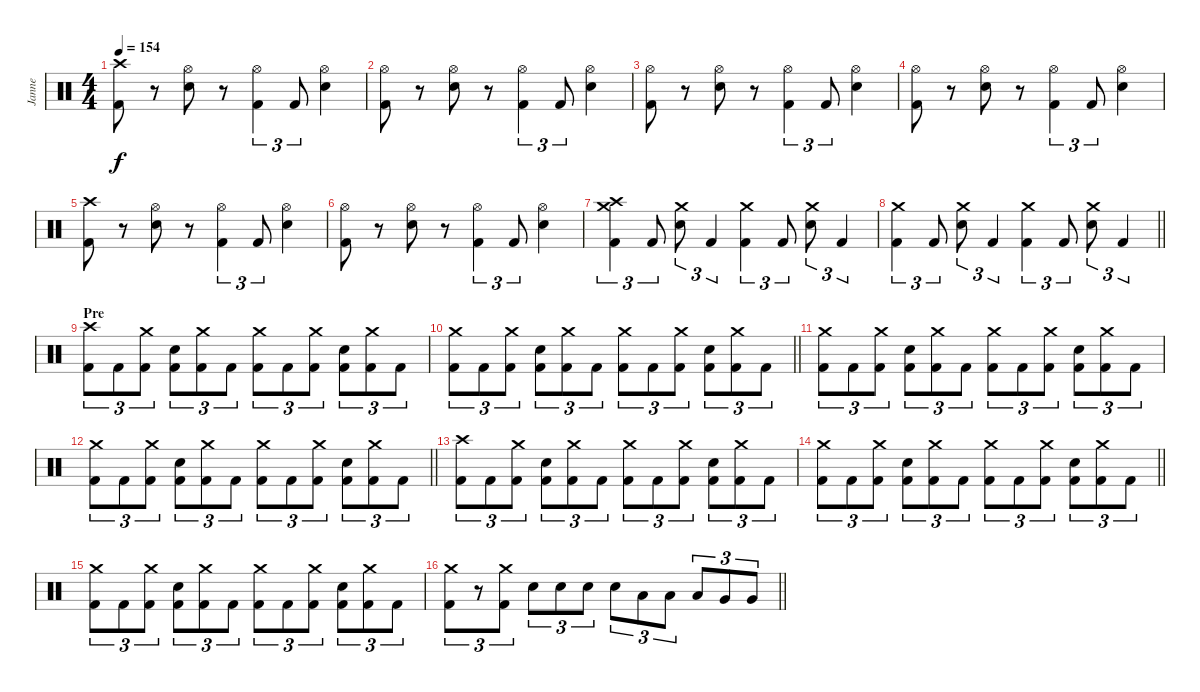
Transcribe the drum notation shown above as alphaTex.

\track ("Janne" "Janne") {instrument percussion}
\staff {score}
\articulation defaults
\ts (4 4)
\tempo 154
\clef neutral
\ks c
("Crash high (hit)" "Kick (hit) 2").8{dy f} r.8 ("Hi-Hat (open)" "Electric Snare (hit)").8 r.8 ("Hi-Hat (open)" "Kick (hit) 2").4{tu (3 2)} "Kick (hit) 2".8{tu (3 2)} ("Hi-Hat (open)" "Electric Snare (hit)").4 |
("Hi-Hat (open)" "Kick (hit) 2").8 r.8 ("Hi-Hat (open)" "Electric Snare (hit)").8 r.8 ("Hi-Hat (open)" "Kick (hit) 2").4{tu (3 2)} "Kick (hit) 2".8{tu (3 2)} ("Hi-Hat (open)" "Electric Snare (hit)").4 |
("Hi-Hat (open)" "Kick (hit) 2").8 r.8 ("Hi-Hat (open)" "Electric Snare (hit)").8 r.8 ("Hi-Hat (open)" "Kick (hit) 2").4{tu (3 2)} "Kick (hit) 2".8{tu (3 2)} ("Hi-Hat (open)" "Electric Snare (hit)").4 |
("Hi-Hat (open)" "Kick (hit) 2").8 r.8 ("Hi-Hat (open)" "Electric Snare (hit)").8 r.8 ("Hi-Hat (open)" "Kick (hit) 2").4{tu (3 2)} "Kick (hit) 2".8{tu (3 2)} ("Hi-Hat (open)" "Electric Snare (hit)").4 |
("Crash high (hit)" "Kick (hit) 2").8 r.8 ("Hi-Hat (open)" "Electric Snare (hit)").8 r.8 ("Hi-Hat (open)" "Kick (hit) 2").4{tu (3 2)} "Kick (hit) 2".8{tu (3 2)} ("Hi-Hat (open)" "Electric Snare (hit)").4 |
("Hi-Hat (open)" "Kick (hit) 2").8 r.8 ("Hi-Hat (open)" "Electric Snare (hit)").8 r.8 ("Hi-Hat (open)" "Kick (hit) 2").4{tu (3 2)} "Kick (hit) 2".8{tu (3 2)} ("Hi-Hat (open)" "Electric Snare (hit)").4 |
("Crash high (hit)" "Crash medium (hit)" "Kick (hit) 2").4{tu (3 2)} "Kick (hit) 2".8{tu (3 2)} ("Crash medium (hit)" "Electric Snare (hit)").8{tu (3 2)} "Kick (hit) 2".4{tu (3 2)} ("Crash medium (hit)" "Kick (hit) 2").4{tu (3 2)} "Kick (hit) 2".8{tu (3 2)} ("Crash medium (hit)" "Electric Snare (hit)").8{tu (3 2)} "Kick (hit) 2".4{tu (3 2)} |
\barLineRight lightlight
("Crash medium (hit)" "Kick (hit) 2").4{tu (3 2)} "Kick (hit) 2".8{tu (3 2)} ("Crash medium (hit)" "Electric Snare (hit)").8{tu (3 2)} "Kick (hit) 2".4{tu (3 2)} ("Crash medium (hit)" "Kick (hit) 2").4{tu (3 2)} "Kick (hit) 2".8{tu (3 2)} ("Crash medium (hit)" "Electric Snare (hit)").8{tu (3 2)} "Kick (hit) 2".4{tu (3 2)} |
\section ("" "Pre")
("Crash high (hit)" "Kick (hit) 2").8{tu (3 2)} "Kick (hit) 2".8{tu (3 2)} ("Crash medium (hit)" "Kick (hit) 2").8{tu (3 2)} ("Electric Snare (hit)" "Kick (hit) 2").8{tu (3 2)} ("Crash medium (hit)" "Kick (hit) 2").8{tu (3 2)} "Kick (hit) 2".8{tu (3 2)} ("Crash medium (hit)" "Kick (hit) 2").8{tu (3 2)} "Kick (hit) 2".8{tu (3 2)} ("Crash medium (hit)" "Kick (hit) 2").8{tu (3 2)} ("Electric Snare (hit)" "Kick (hit) 2").8{tu (3 2)} ("Crash medium (hit)" "Kick (hit) 2").8{tu (3 2)} "Kick (hit) 2".8{tu (3 2)} |
\barLineRight lightlight
("Crash medium (hit)" "Kick (hit) 2").8{tu (3 2)} "Kick (hit) 2".8{tu (3 2)} ("Crash medium (hit)" "Kick (hit) 2").8{tu (3 2)} ("Electric Snare (hit)" "Kick (hit) 2").8{tu (3 2)} ("Crash medium (hit)" "Kick (hit) 2").8{tu (3 2)} "Kick (hit) 2".8{tu (3 2)} ("Crash medium (hit)" "Kick (hit) 2").8{tu (3 2)} "Kick (hit) 2".8{tu (3 2)} ("Crash medium (hit)" "Kick (hit) 2").8{tu (3 2)} ("Electric Snare (hit)" "Kick (hit) 2").8{tu (3 2)} ("Crash medium (hit)" "Kick (hit) 2").8{tu (3 2)} "Kick (hit) 2".8{tu (3 2)} |
("Crash medium (hit)" "Kick (hit) 2").8{tu (3 2)} "Kick (hit) 2".8{tu (3 2)} ("Crash medium (hit)" "Kick (hit) 2").8{tu (3 2)} ("Electric Snare (hit)" "Kick (hit) 2").8{tu (3 2)} ("Crash medium (hit)" "Kick (hit) 2").8{tu (3 2)} "Kick (hit) 2".8{tu (3 2)} ("Crash medium (hit)" "Kick (hit) 2").8{tu (3 2)} "Kick (hit) 2".8{tu (3 2)} ("Crash medium (hit)" "Kick (hit) 2").8{tu (3 2)} ("Electric Snare (hit)" "Kick (hit) 2").8{tu (3 2)} ("Crash medium (hit)" "Kick (hit) 2").8{tu (3 2)} "Kick (hit) 2".8{tu (3 2)} |
\barLineRight lightlight
("Crash medium (hit)" "Kick (hit) 2").8{tu (3 2)} "Kick (hit) 2".8{tu (3 2)} ("Crash medium (hit)" "Kick (hit) 2").8{tu (3 2)} ("Electric Snare (hit)" "Kick (hit) 2").8{tu (3 2)} ("Crash medium (hit)" "Kick (hit) 2").8{tu (3 2)} "Kick (hit) 2".8{tu (3 2)} ("Crash medium (hit)" "Kick (hit) 2").8{tu (3 2)} "Kick (hit) 2".8{tu (3 2)} ("Crash medium (hit)" "Kick (hit) 2").8{tu (3 2)} ("Electric Snare (hit)" "Kick (hit) 2").8{tu (3 2)} ("Crash medium (hit)" "Kick (hit) 2").8{tu (3 2)} "Kick (hit) 2".8{tu (3 2)} |
("Crash high (hit)" "Kick (hit) 2").8{tu (3 2)} "Kick (hit) 2".8{tu (3 2)} ("Crash medium (hit)" "Kick (hit) 2").8{tu (3 2)} ("Electric Snare (hit)" "Kick (hit) 2").8{tu (3 2)} ("Crash medium (hit)" "Kick (hit) 2").8{tu (3 2)} "Kick (hit) 2".8{tu (3 2)} ("Crash medium (hit)" "Kick (hit) 2").8{tu (3 2)} "Kick (hit) 2".8{tu (3 2)} ("Crash medium (hit)" "Kick (hit) 2").8{tu (3 2)} ("Electric Snare (hit)" "Kick (hit) 2").8{tu (3 2)} ("Crash medium (hit)" "Kick (hit) 2").8{tu (3 2)} "Kick (hit) 2".8{tu (3 2)} |
\barLineRight lightlight
("Crash medium (hit)" "Kick (hit) 2").8{tu (3 2)} "Kick (hit) 2".8{tu (3 2)} ("Crash medium (hit)" "Kick (hit) 2").8{tu (3 2)} ("Electric Snare (hit)" "Kick (hit) 2").8{tu (3 2)} ("Crash medium (hit)" "Kick (hit) 2").8{tu (3 2)} "Kick (hit) 2".8{tu (3 2)} ("Crash medium (hit)" "Kick (hit) 2").8{tu (3 2)} "Kick (hit) 2".8{tu (3 2)} ("Crash medium (hit)" "Kick (hit) 2").8{tu (3 2)} ("Electric Snare (hit)" "Kick (hit) 2").8{tu (3 2)} ("Crash medium (hit)" "Kick (hit) 2").8{tu (3 2)} "Kick (hit) 2".8{tu (3 2)} |
("Crash medium (hit)" "Kick (hit) 2").8{tu (3 2)} "Kick (hit) 2".8{tu (3 2)} ("Crash medium (hit)" "Kick (hit) 2").8{tu (3 2)} ("Electric Snare (hit)" "Kick (hit) 2").8{tu (3 2)} ("Crash medium (hit)" "Kick (hit) 2").8{tu (3 2)} "Kick (hit) 2".8{tu (3 2)} ("Crash medium (hit)" "Kick (hit) 2").8{tu (3 2)} "Kick (hit) 2".8{tu (3 2)} ("Crash medium (hit)" "Kick (hit) 2").8{tu (3 2)} ("Electric Snare (hit)" "Kick (hit) 2").8{tu (3 2)} ("Crash medium (hit)" "Kick (hit) 2").8{tu (3 2)} "Kick (hit) 2".8{tu (3 2)} |
\barLineRight lightlight
("Crash medium (hit)" "Kick (hit) 2").8{tu (3 2)} r.8{tu (3 2)} ("Crash medium (hit)" "Kick (hit) 2").8{tu (3 2)} "Electric Snare (hit)".8{tu (3 2)} "Electric Snare (hit)".8{tu (3 2)} "Electric Snare (hit)".8{tu (3 2)} "Electric Snare (hit)".8{tu (3 2)} "Low Tom (hit)".8{tu (3 2)} "Low Tom (hit)".8{tu (3 2)} "Low Tom (hit)".8{tu (3 2)} "Very Low Tom (hit)".8{tu (3 2)} "Very Low Tom (hit)".8{tu (3 2)}
